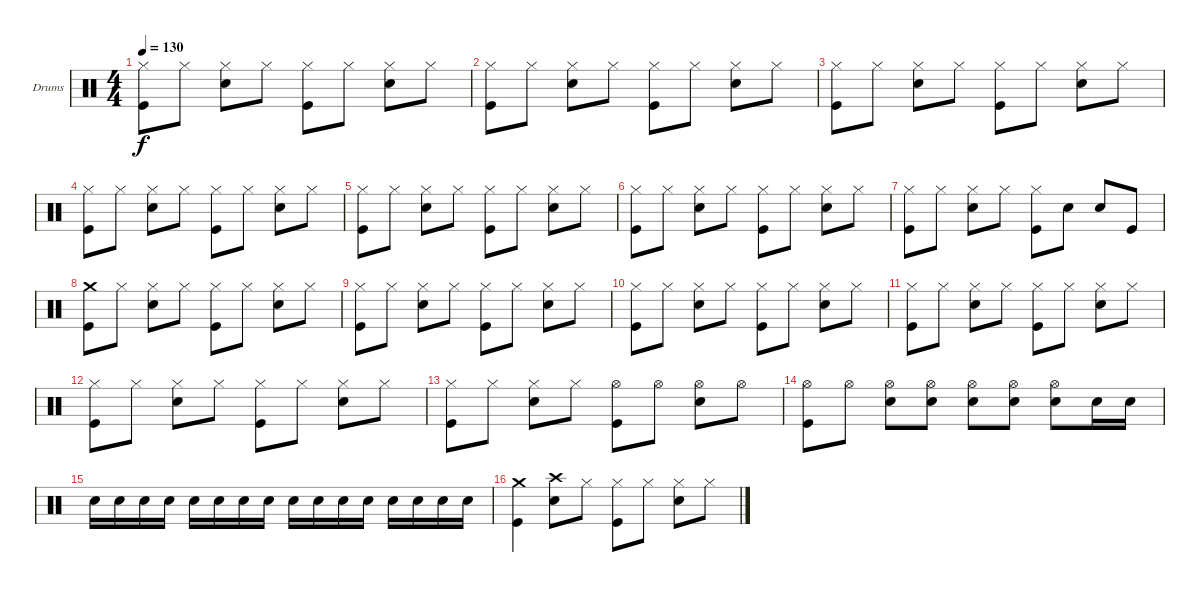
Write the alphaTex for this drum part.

\defaultSystemsLayout 4
\bracketExtendMode groupsimilarinstruments
\firstSystemTrackNameOrientation horizontal
\otherSystemsTrackNameOrientation horizontal
\track ("Stefan Kaufmann" "Drums") {instrument percussion}
\staff {score}
\articulation defaults
\ts (4 4)
\tempo 130
\clef neutral
\ks c
("Hi-Hat (closed)" "Kick (hit)").8{dy f} "Hi-Hat (closed)".8 ("Hi-Hat (closed)" "Snare (hit) 2").8 "Hi-Hat (closed)".8 ("Hi-Hat (closed)" "Kick (hit)").8 "Hi-Hat (closed)".8 ("Hi-Hat (closed)" "Snare (hit) 2").8 "Hi-Hat (closed)".8 |
("Hi-Hat (closed)" "Kick (hit)").8 "Hi-Hat (closed)".8 ("Hi-Hat (closed)" "Snare (hit) 2").8 "Hi-Hat (closed)".8 ("Hi-Hat (closed)" "Kick (hit)").8 "Hi-Hat (closed)".8 ("Hi-Hat (closed)" "Snare (hit) 2").8 "Hi-Hat (closed)".8 |
("Hi-Hat (closed)" "Kick (hit)").8 "Hi-Hat (closed)".8 ("Hi-Hat (closed)" "Snare (hit) 2").8 "Hi-Hat (closed)".8 ("Hi-Hat (closed)" "Kick (hit)").8 "Hi-Hat (closed)".8 ("Hi-Hat (closed)" "Snare (hit) 2").8 "Hi-Hat (closed)".8 |
("Hi-Hat (closed)" "Kick (hit)").8 "Hi-Hat (closed)".8 ("Hi-Hat (closed)" "Snare (hit) 2").8 "Hi-Hat (closed)".8 ("Hi-Hat (closed)" "Kick (hit)").8 "Hi-Hat (closed)".8 ("Hi-Hat (closed)" "Snare (hit) 2").8 "Hi-Hat (closed)".8 |
("Hi-Hat (closed)" "Kick (hit)").8 "Hi-Hat (closed)".8 ("Hi-Hat (closed)" "Snare (hit) 2").8 "Hi-Hat (closed)".8 ("Hi-Hat (closed)" "Kick (hit)").8 "Hi-Hat (closed)".8 ("Hi-Hat (closed)" "Snare (hit) 2").8 "Hi-Hat (closed)".8 |
("Hi-Hat (closed)" "Kick (hit)").8 "Hi-Hat (closed)".8 ("Hi-Hat (closed)" "Snare (hit) 2").8 "Hi-Hat (closed)".8 ("Hi-Hat (closed)" "Kick (hit)").8 "Hi-Hat (closed)".8 ("Hi-Hat (closed)" "Snare (hit) 2").8 "Hi-Hat (closed)".8 |
("Hi-Hat (closed)" "Kick (hit)").8 "Hi-Hat (closed)".8 ("Hi-Hat (closed)" "Snare (hit) 2").8 "Hi-Hat (closed)".8 ("Hi-Hat (closed)" "Kick (hit)").8 "Snare (hit) 2".8 "Snare (hit) 2".8 "Kick (hit)".8 |
("Crash medium (hit)" "Kick (hit)").8 "Hi-Hat (closed)".8 ("Hi-Hat (closed)" "Snare (hit) 2").8 "Hi-Hat (closed)".8 ("Hi-Hat (closed)" "Kick (hit)").8 "Hi-Hat (closed)".8 ("Hi-Hat (closed)" "Snare (hit) 2").8 "Hi-Hat (closed)".8 |
("Hi-Hat (closed)" "Kick (hit)").8 "Hi-Hat (closed)".8 ("Hi-Hat (closed)" "Snare (hit) 2").8 "Hi-Hat (closed)".8 ("Hi-Hat (closed)" "Kick (hit)").8 "Hi-Hat (closed)".8 ("Hi-Hat (closed)" "Snare (hit) 2").8 "Hi-Hat (closed)".8 |
("Hi-Hat (closed)" "Kick (hit)").8 "Hi-Hat (closed)".8 ("Hi-Hat (closed)" "Snare (hit) 2").8 "Hi-Hat (closed)".8 ("Hi-Hat (closed)" "Kick (hit)").8 "Hi-Hat (closed)".8 ("Hi-Hat (closed)" "Snare (hit) 2").8 "Hi-Hat (closed)".8 |
("Hi-Hat (closed)" "Kick (hit)").8 "Hi-Hat (closed)".8 ("Hi-Hat (closed)" "Snare (hit) 2").8 "Hi-Hat (closed)".8 ("Hi-Hat (closed)" "Kick (hit)").8 "Hi-Hat (closed)".8 ("Hi-Hat (closed)" "Snare (hit) 2").8 "Hi-Hat (closed)".8 |
("Hi-Hat (closed)" "Kick (hit)").8 "Hi-Hat (closed)".8 ("Hi-Hat (closed)" "Snare (hit) 2").8 "Hi-Hat (closed)".8 ("Hi-Hat (closed)" "Kick (hit)").8 "Hi-Hat (closed)".8 ("Hi-Hat (closed)" "Snare (hit) 2").8 "Hi-Hat (closed)".8 |
("Hi-Hat (closed)" "Kick (hit)").8 "Hi-Hat (closed)".8 ("Hi-Hat (closed)" "Snare (hit) 2").8 "Hi-Hat (closed)".8 ("Hi-Hat (open)" "Kick (hit)").8 "Hi-Hat (open)".8 ("Hi-Hat (open)" "Snare (hit) 2").8 "Hi-Hat (open)".8 |
("Hi-Hat (open)" "Kick (hit)").8 "Hi-Hat (open)".8 ("Hi-Hat (open)" "Snare (hit) 2").8 ("Hi-Hat (open)" "Snare (hit) 2").8 ("Hi-Hat (open)" "Snare (hit) 2").8 ("Hi-Hat (open)" "Snare (hit) 2").8 ("Hi-Hat (open)" "Snare (hit) 2").8 "Snare (hit) 2".16 "Snare (hit) 2".16 |
"Snare (hit) 2".16 "Snare (hit) 2".16 "Snare (hit) 2".16 "Snare (hit) 2".16 "Snare (hit) 2".16 "Snare (hit) 2".16 "Snare (hit) 2".16 "Snare (hit) 2".16 "Snare (hit) 2".16 "Snare (hit) 2".16 "Snare (hit) 2".16 "Snare (hit) 2".16 "Snare (hit) 2".16 "Snare (hit) 2".16 "Snare (hit) 2".16 "Snare (hit) 2".16 |
("Crash medium (hit)" "Kick (hit)").4 ("Crash high (hit)" "Snare (hit) 2").8 "Hi-Hat (closed)".8 ("Hi-Hat (closed)" "Kick (hit)").8 "Hi-Hat (closed)".8 ("Hi-Hat (closed)" "Snare (hit) 2").8 "Hi-Hat (closed)".8
